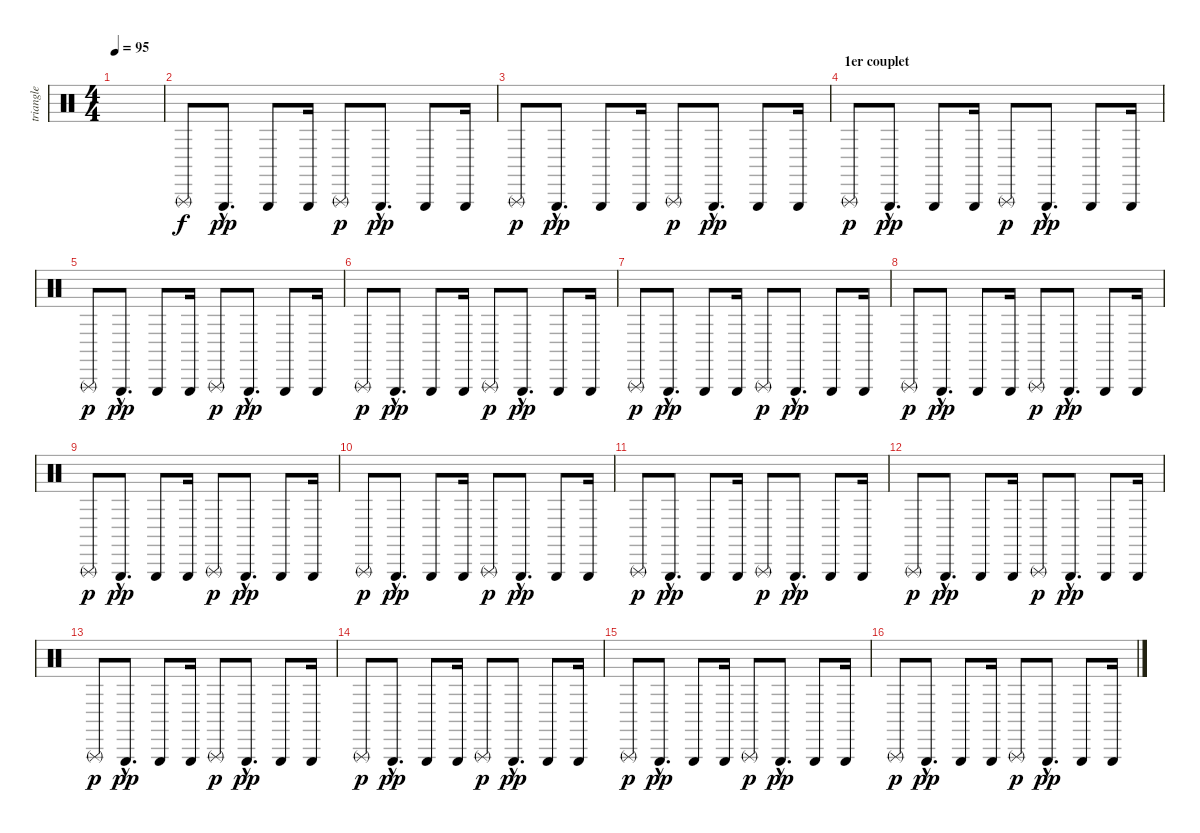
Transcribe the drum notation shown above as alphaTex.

\track ("triangle" "triangle") {instrument percussion}
\staff {score}
\articulation defaults
\ts (4 4)
\tempo 95
\clef neutral
\ks c
|
"Triangle (rnute)".8 "Triangle (hit)"{hac}.8{d dy pp} "Triangle (hit)".8 "Triangle (hit)".16 "Triangle (rnute)".8{dy p} "Triangle (hit)"{hac}.8{d dy pp} "Triangle (hit)".8 "Triangle (hit)".16 |
"Triangle (rnute)".8{dy p} "Triangle (hit)"{hac}.8{d dy pp} "Triangle (hit)".8 "Triangle (hit)".16 "Triangle (rnute)".8{dy p} "Triangle (hit)"{hac}.8{d dy pp} "Triangle (hit)".8 "Triangle (hit)".16 |
\section ("" "1er couplet")
"Triangle (rnute)".8{dy p} "Triangle (hit)"{hac}.8{d dy pp} "Triangle (hit)".8 "Triangle (hit)".16 "Triangle (rnute)".8{dy p} "Triangle (hit)"{hac}.8{d dy pp} "Triangle (hit)".8 "Triangle (hit)".16 |
"Triangle (rnute)".8{dy p} "Triangle (hit)"{hac}.8{d dy pp} "Triangle (hit)".8 "Triangle (hit)".16 "Triangle (rnute)".8{dy p} "Triangle (hit)"{hac}.8{d dy pp} "Triangle (hit)".8 "Triangle (hit)".16 |
"Triangle (rnute)".8{dy p} "Triangle (hit)"{hac}.8{d dy pp} "Triangle (hit)".8 "Triangle (hit)".16 "Triangle (rnute)".8{dy p} "Triangle (hit)"{hac}.8{d dy pp} "Triangle (hit)".8 "Triangle (hit)".16 |
"Triangle (rnute)".8{dy p} "Triangle (hit)"{hac}.8{d dy pp} "Triangle (hit)".8 "Triangle (hit)".16 "Triangle (rnute)".8{dy p} "Triangle (hit)"{hac}.8{d dy pp} "Triangle (hit)".8 "Triangle (hit)".16 |
"Triangle (rnute)".8{dy p} "Triangle (hit)"{hac}.8{d dy pp} "Triangle (hit)".8 "Triangle (hit)".16 "Triangle (rnute)".8{dy p} "Triangle (hit)"{hac}.8{d dy pp} "Triangle (hit)".8 "Triangle (hit)".16 |
"Triangle (rnute)".8{dy p} "Triangle (hit)"{hac}.8{d dy pp} "Triangle (hit)".8 "Triangle (hit)".16 "Triangle (rnute)".8{dy p} "Triangle (hit)"{hac}.8{d dy pp} "Triangle (hit)".8 "Triangle (hit)".16 |
"Triangle (rnute)".8{dy p} "Triangle (hit)"{hac}.8{d dy pp} "Triangle (hit)".8 "Triangle (hit)".16 "Triangle (rnute)".8{dy p} "Triangle (hit)"{hac}.8{d dy pp} "Triangle (hit)".8 "Triangle (hit)".16 |
"Triangle (rnute)".8{dy p} "Triangle (hit)"{hac}.8{d dy pp} "Triangle (hit)".8 "Triangle (hit)".16 "Triangle (rnute)".8{dy p} "Triangle (hit)"{hac}.8{d dy pp} "Triangle (hit)".8 "Triangle (hit)".16 |
"Triangle (rnute)".8{dy p} "Triangle (hit)"{hac}.8{d dy pp} "Triangle (hit)".8 "Triangle (hit)".16 "Triangle (rnute)".8{dy p} "Triangle (hit)"{hac}.8{d dy pp} "Triangle (hit)".8 "Triangle (hit)".16 |
"Triangle (rnute)".8{dy p} "Triangle (hit)"{hac}.8{d dy pp} "Triangle (hit)".8 "Triangle (hit)".16 "Triangle (rnute)".8{dy p} "Triangle (hit)"{hac}.8{d dy pp} "Triangle (hit)".8 "Triangle (hit)".16 |
"Triangle (rnute)".8{dy p} "Triangle (hit)"{hac}.8{d dy pp} "Triangle (hit)".8 "Triangle (hit)".16 "Triangle (rnute)".8{dy p} "Triangle (hit)"{hac}.8{d dy pp} "Triangle (hit)".8 "Triangle (hit)".16 |
"Triangle (rnute)".8{dy p} "Triangle (hit)"{hac}.8{d dy pp} "Triangle (hit)".8 "Triangle (hit)".16 "Triangle (rnute)".8{dy p} "Triangle (hit)"{hac}.8{d dy pp} "Triangle (hit)".8 "Triangle (hit)".16 |
"Triangle (rnute)".8{dy p} "Triangle (hit)"{hac}.8{d dy pp} "Triangle (hit)".8 "Triangle (hit)".16 "Triangle (rnute)".8{dy p} "Triangle (hit)"{hac}.8{d dy pp} "Triangle (hit)".8 "Triangle (hit)".16
